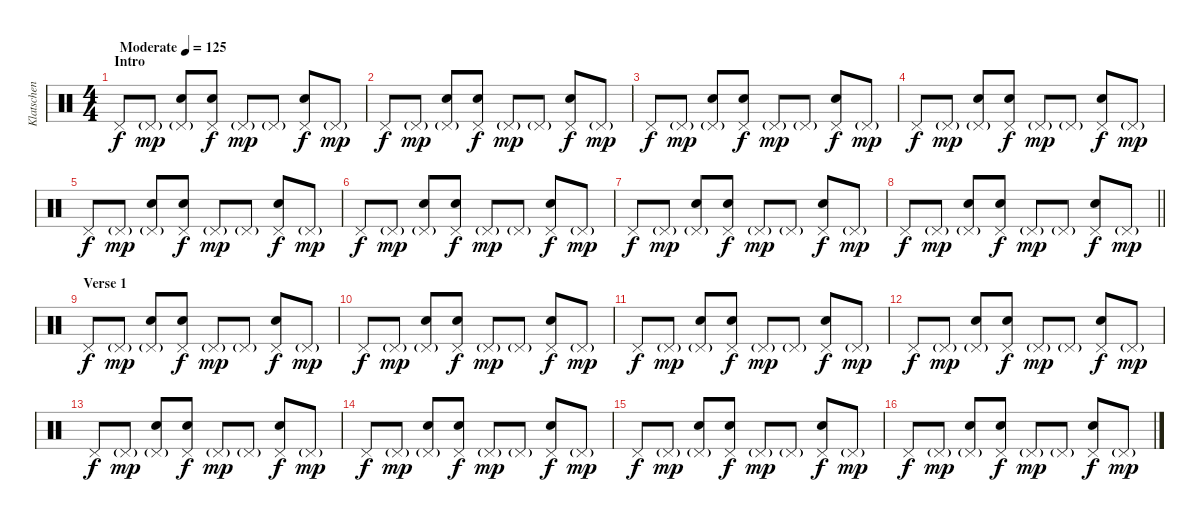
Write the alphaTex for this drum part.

\track ("Klatschen" "Klatschen") {instrument percussion}
\staff {score}
\articulation defaults
\ts (4 4)
\section ("" "Intro")
\tempo (125 "Moderate")
\clef neutral
\ks c "Pedal Hi-Hat (hit)".8{dy f} "Pedal Hi-Hat (hit)"{g}.8{dy mp}
("Pedal Hi-Hat (hit)"{g} "Hand Clap (hit)").8 ("Pedal Hi-Hat (hit)" "Hand Clap (hit)").8{dy f} "Pedal Hi-Hat (hit)"{g}.8{dy mp} "Pedal Hi-Hat (hit)"{g}.8 ("Pedal Hi-Hat (hit)" "Hand Clap (hit)").8{dy f} "Pedal Hi-Hat (hit)"{g}.8{dy mp} |
"Pedal Hi-Hat (hit)".8{dy f} "Pedal Hi-Hat (hit)"{g}.8{dy mp} ("Pedal Hi-Hat (hit)"{g} "Hand Clap (hit)").8 ("Pedal Hi-Hat (hit)" "Hand Clap (hit)").8{dy f} "Pedal Hi-Hat (hit)"{g}.8{dy mp} "Pedal Hi-Hat (hit)"{g}.8 ("Pedal Hi-Hat (hit)" "Hand Clap (hit)").8{dy f} "Pedal Hi-Hat (hit)"{g}.8{dy mp} |
"Pedal Hi-Hat (hit)".8{dy f} "Pedal Hi-Hat (hit)"{g}.8{dy mp} ("Pedal Hi-Hat (hit)"{g} "Hand Clap (hit)").8 ("Pedal Hi-Hat (hit)" "Hand Clap (hit)").8{dy f} "Pedal Hi-Hat (hit)"{g}.8{dy mp} "Pedal Hi-Hat (hit)"{g}.8 ("Pedal Hi-Hat (hit)" "Hand Clap (hit)").8{dy f} "Pedal Hi-Hat (hit)"{g}.8{dy mp} |
"Pedal Hi-Hat (hit)".8{dy f} "Pedal Hi-Hat (hit)"{g}.8{dy mp} ("Pedal Hi-Hat (hit)"{g} "Hand Clap (hit)").8 ("Pedal Hi-Hat (hit)" "Hand Clap (hit)").8{dy f} "Pedal Hi-Hat (hit)"{g}.8{dy mp} "Pedal Hi-Hat (hit)"{g}.8 ("Pedal Hi-Hat (hit)" "Hand Clap (hit)").8{dy f} "Pedal Hi-Hat (hit)"{g}.8{dy mp} |
"Pedal Hi-Hat (hit)".8{dy f} "Pedal Hi-Hat (hit)"{g}.8{dy mp} ("Pedal Hi-Hat (hit)"{g} "Hand Clap (hit)").8 ("Pedal Hi-Hat (hit)" "Hand Clap (hit)").8{dy f} "Pedal Hi-Hat (hit)"{g}.8{dy mp} "Pedal Hi-Hat (hit)"{g}.8 ("Pedal Hi-Hat (hit)" "Hand Clap (hit)").8{dy f} "Pedal Hi-Hat (hit)"{g}.8{dy mp} |
"Pedal Hi-Hat (hit)".8{dy f} "Pedal Hi-Hat (hit)"{g}.8{dy mp} ("Pedal Hi-Hat (hit)"{g} "Hand Clap (hit)").8 ("Pedal Hi-Hat (hit)" "Hand Clap (hit)").8{dy f} "Pedal Hi-Hat (hit)"{g}.8{dy mp} "Pedal Hi-Hat (hit)"{g}.8 ("Pedal Hi-Hat (hit)" "Hand Clap (hit)").8{dy f} "Pedal Hi-Hat (hit)"{g}.8{dy mp} |
"Pedal Hi-Hat (hit)".8{dy f} "Pedal Hi-Hat (hit)"{g}.8{dy mp} ("Pedal Hi-Hat (hit)"{g} "Hand Clap (hit)").8 ("Pedal Hi-Hat (hit)" "Hand Clap (hit)").8{dy f} "Pedal Hi-Hat (hit)"{g}.8{dy mp} "Pedal Hi-Hat (hit)"{g}.8 ("Pedal Hi-Hat (hit)" "Hand Clap (hit)").8{dy f} "Pedal Hi-Hat (hit)"{g}.8{dy mp} |
\barLineRight lightlight "Pedal Hi-Hat (hit)".8{dy f} "Pedal Hi-Hat (hit)"{g}.8{dy mp}
("Pedal Hi-Hat (hit)"{g} "Hand Clap (hit)").8 ("Pedal Hi-Hat (hit)" "Hand Clap (hit)").8{dy f} "Pedal Hi-Hat (hit)"{g}.8{dy mp} "Pedal Hi-Hat (hit)"{g}.8 ("Pedal Hi-Hat (hit)" "Hand Clap (hit)").8{dy f} "Pedal Hi-Hat (hit)"{g}.8{dy mp} |
\section ("" "Verse 1")
"Pedal Hi-Hat (hit)".8{dy f} "Pedal Hi-Hat (hit)"{g}.8{dy mp} ("Pedal Hi-Hat (hit)"{g} "Hand Clap (hit)").8 ("Pedal Hi-Hat (hit)" "Hand Clap (hit)").8{dy f} "Pedal Hi-Hat (hit)"{g}.8{dy mp} "Pedal Hi-Hat (hit)"{g}.8 ("Pedal Hi-Hat (hit)" "Hand Clap (hit)").8{dy f} "Pedal Hi-Hat (hit)"{g}.8{dy mp} |
"Pedal Hi-Hat (hit)".8{dy f} "Pedal Hi-Hat (hit)"{g}.8{dy mp} ("Pedal Hi-Hat (hit)"{g} "Hand Clap (hit)").8 ("Pedal Hi-Hat (hit)" "Hand Clap (hit)").8{dy f} "Pedal Hi-Hat (hit)"{g}.8{dy mp} "Pedal Hi-Hat (hit)"{g}.8 ("Pedal Hi-Hat (hit)" "Hand Clap (hit)").8{dy f} "Pedal Hi-Hat (hit)"{g}.8{dy mp} |
"Pedal Hi-Hat (hit)".8{dy f} "Pedal Hi-Hat (hit)"{g}.8{dy mp} ("Pedal Hi-Hat (hit)"{g} "Hand Clap (hit)").8 ("Pedal Hi-Hat (hit)" "Hand Clap (hit)").8{dy f} "Pedal Hi-Hat (hit)"{g}.8{dy mp} "Pedal Hi-Hat (hit)"{g}.8 ("Pedal Hi-Hat (hit)" "Hand Clap (hit)").8{dy f} "Pedal Hi-Hat (hit)"{g}.8{dy mp} |
"Pedal Hi-Hat (hit)".8{dy f} "Pedal Hi-Hat (hit)"{g}.8{dy mp} ("Pedal Hi-Hat (hit)"{g} "Hand Clap (hit)").8 ("Pedal Hi-Hat (hit)" "Hand Clap (hit)").8{dy f} "Pedal Hi-Hat (hit)"{g}.8{dy mp} "Pedal Hi-Hat (hit)"{g}.8 ("Pedal Hi-Hat (hit)" "Hand Clap (hit)").8{dy f} "Pedal Hi-Hat (hit)"{g}.8{dy mp} |
"Pedal Hi-Hat (hit)".8{dy f} "Pedal Hi-Hat (hit)"{g}.8{dy mp} ("Pedal Hi-Hat (hit)"{g} "Hand Clap (hit)").8 ("Pedal Hi-Hat (hit)" "Hand Clap (hit)").8{dy f} "Pedal Hi-Hat (hit)"{g}.8{dy mp} "Pedal Hi-Hat (hit)"{g}.8 ("Pedal Hi-Hat (hit)" "Hand Clap (hit)").8{dy f} "Pedal Hi-Hat (hit)"{g}.8{dy mp} |
"Pedal Hi-Hat (hit)".8{dy f} "Pedal Hi-Hat (hit)"{g}.8{dy mp} ("Pedal Hi-Hat (hit)"{g} "Hand Clap (hit)").8 ("Pedal Hi-Hat (hit)" "Hand Clap (hit)").8{dy f} "Pedal Hi-Hat (hit)"{g}.8{dy mp} "Pedal Hi-Hat (hit)"{g}.8 ("Pedal Hi-Hat (hit)" "Hand Clap (hit)").8{dy f} "Pedal Hi-Hat (hit)"{g}.8{dy mp} |
"Pedal Hi-Hat (hit)".8{dy f} "Pedal Hi-Hat (hit)"{g}.8{dy mp} ("Pedal Hi-Hat (hit)"{g} "Hand Clap (hit)").8 ("Pedal Hi-Hat (hit)" "Hand Clap (hit)").8{dy f} "Pedal Hi-Hat (hit)"{g}.8{dy mp} "Pedal Hi-Hat (hit)"{g}.8 ("Pedal Hi-Hat (hit)" "Hand Clap (hit)").8{dy f} "Pedal Hi-Hat (hit)"{g}.8{dy mp} |
"Pedal Hi-Hat (hit)".8{dy f} "Pedal Hi-Hat (hit)"{g}.8{dy mp} ("Pedal Hi-Hat (hit)"{g} "Hand Clap (hit)").8 ("Pedal Hi-Hat (hit)" "Hand Clap (hit)").8{dy f} "Pedal Hi-Hat (hit)"{g}.8{dy mp} "Pedal Hi-Hat (hit)"{g}.8 ("Pedal Hi-Hat (hit)" "Hand Clap (hit)").8{dy f} "Pedal Hi-Hat (hit)"{g}.8{dy mp}
